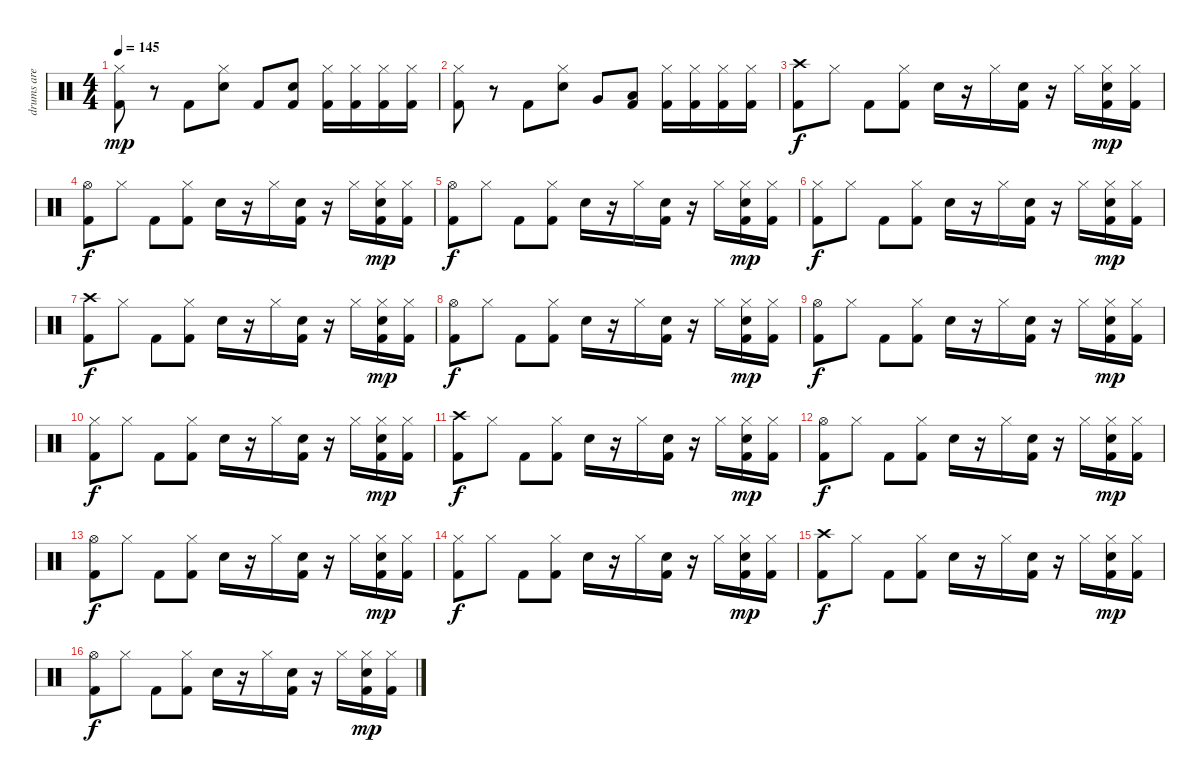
\track ("drums are cool   >.<" "drums are ") {instrument percussion}
\staff {score}
\articulation defaults
\ts (4 4)
\tempo 145
\clef neutral
\ks c
("Hi-Hat (closed)" "Kick (hit) 2").8{dy mp} r.8 "Kick (hit) 2".8 ("Hi-Hat (closed)" "Snare (hit) 2").8 "Kick (hit) 2".8 ("Snare (hit) 2" "Kick (hit) 2").8 ("Hi-Hat (closed)" "Kick (hit) 2").16 ("Hi-Hat (closed)" "Kick (hit) 2").16 ("Hi-Hat (closed)" "Kick (hit) 2").16 ("Hi-Hat (closed)" "Kick (hit) 2").16 |
("Hi-Hat (closed)" "Kick (hit) 2").8 r.8 "Kick (hit) 2".8 ("Hi-Hat (closed)" "Snare (hit) 2").8 "Very Low Tom (hit)".8 ("Low Floor Tom (hit)" "Kick (hit) 2").8 ("Hi-Hat (closed)" "Kick (hit) 2").16 ("Hi-Hat (closed)" "Kick (hit) 2").16 ("Hi-Hat (closed)" "Kick (hit) 2").16 ("Hi-Hat (closed)" "Kick (hit) 2").16 |
("Crash high (hit)" "Kick (hit) 2").8{dy f} "Hi-Hat (closed)".8 "Kick (hit) 2".8 ("Hi-Hat (closed)" "Kick (hit) 2").8 "Snare (hit) 2".16 r.16 "Hi-Hat (closed)".16 ("Snare (hit) 2" "Kick (hit) 2").16 r.16 "Hi-Hat (closed)".16 ("Hi-Hat (closed)" "Snare (hit) 2" "Kick (hit) 2").16{dy mp} ("Hi-Hat (closed)" "Kick (hit) 2").16 |
("Hi-Hat (open)" "Kick (hit) 2").8{dy f} "Hi-Hat (closed)".8 "Kick (hit) 2".8 ("Hi-Hat (closed)" "Kick (hit) 2").8 "Snare (hit) 2".16 r.16 "Hi-Hat (closed)".16 ("Snare (hit) 2" "Kick (hit) 2").16 r.16 "Hi-Hat (closed)".16 ("Hi-Hat (closed)" "Snare (hit) 2" "Kick (hit) 2").16{dy mp} ("Hi-Hat (closed)" "Kick (hit) 2").16 |
("Hi-Hat (open)" "Kick (hit) 2").8{dy f} "Hi-Hat (closed)".8 "Kick (hit) 2".8 ("Hi-Hat (closed)" "Kick (hit) 2").8 "Snare (hit) 2".16 r.16 "Hi-Hat (closed)".16 ("Snare (hit) 2" "Kick (hit) 2").16 r.16 "Hi-Hat (closed)".16 ("Hi-Hat (closed)" "Snare (hit) 2" "Kick (hit) 2").16{dy mp} ("Hi-Hat (closed)" "Kick (hit) 2").16 |
("Hi-Hat (closed)" "Kick (hit) 2").8{dy f} "Hi-Hat (closed)".8 "Kick (hit) 2".8 ("Hi-Hat (closed)" "Kick (hit) 2").8 "Snare (hit) 2".16 r.16 "Hi-Hat (closed)".16 ("Snare (hit) 2" "Kick (hit) 2").16 r.16 "Hi-Hat (closed)".16 ("Hi-Hat (closed)" "Snare (hit) 2" "Kick (hit) 2").16{dy mp} ("Hi-Hat (closed)" "Kick (hit) 2").16 |
("Crash high (hit)" "Kick (hit) 2").8{dy f} "Hi-Hat (closed)".8 "Kick (hit) 2".8 ("Hi-Hat (closed)" "Kick (hit) 2").8 "Snare (hit) 2".16 r.16 "Hi-Hat (closed)".16 ("Snare (hit) 2" "Kick (hit) 2").16 r.16 "Hi-Hat (closed)".16 ("Hi-Hat (closed)" "Snare (hit) 2" "Kick (hit) 2").16{dy mp} ("Hi-Hat (closed)" "Kick (hit) 2").16 |
("Hi-Hat (open)" "Kick (hit) 2").8{dy f} "Hi-Hat (closed)".8 "Kick (hit) 2".8 ("Hi-Hat (closed)" "Kick (hit) 2").8 "Snare (hit) 2".16 r.16 "Hi-Hat (closed)".16 ("Snare (hit) 2" "Kick (hit) 2").16 r.16 "Hi-Hat (closed)".16 ("Hi-Hat (closed)" "Snare (hit) 2" "Kick (hit) 2").16{dy mp} ("Hi-Hat (closed)" "Kick (hit) 2").16 |
("Hi-Hat (open)" "Kick (hit) 2").8{dy f} "Hi-Hat (closed)".8 "Kick (hit) 2".8 ("Hi-Hat (closed)" "Kick (hit) 2").8 "Snare (hit) 2".16 r.16 "Hi-Hat (closed)".16 ("Snare (hit) 2" "Kick (hit) 2").16 r.16 "Hi-Hat (closed)".16 ("Hi-Hat (closed)" "Snare (hit) 2" "Kick (hit) 2").16{dy mp} ("Hi-Hat (closed)" "Kick (hit) 2").16 |
("Hi-Hat (closed)" "Kick (hit) 2").8{dy f} "Hi-Hat (closed)".8 "Kick (hit) 2".8 ("Hi-Hat (closed)" "Kick (hit) 2").8 "Snare (hit) 2".16 r.16 "Hi-Hat (closed)".16 ("Snare (hit) 2" "Kick (hit) 2").16 r.16 "Hi-Hat (closed)".16 ("Hi-Hat (closed)" "Snare (hit) 2" "Kick (hit) 2").16{dy mp} ("Hi-Hat (closed)" "Kick (hit) 2").16 |
("Crash high (hit)" "Kick (hit) 2").8{dy f} "Hi-Hat (closed)".8 "Kick (hit) 2".8 ("Hi-Hat (closed)" "Kick (hit) 2").8 "Snare (hit) 2".16 r.16 "Hi-Hat (closed)".16 ("Snare (hit) 2" "Kick (hit) 2").16 r.16 "Hi-Hat (closed)".16 ("Hi-Hat (closed)" "Snare (hit) 2" "Kick (hit) 2").16{dy mp} ("Hi-Hat (closed)" "Kick (hit) 2").16 |
("Hi-Hat (open)" "Kick (hit) 2").8{dy f} "Hi-Hat (closed)".8 "Kick (hit) 2".8 ("Hi-Hat (closed)" "Kick (hit) 2").8 "Snare (hit) 2".16 r.16 "Hi-Hat (closed)".16 ("Snare (hit) 2" "Kick (hit) 2").16 r.16 "Hi-Hat (closed)".16 ("Hi-Hat (closed)" "Snare (hit) 2" "Kick (hit) 2").16{dy mp} ("Hi-Hat (closed)" "Kick (hit) 2").16 |
("Hi-Hat (open)" "Kick (hit) 2").8{dy f} "Hi-Hat (closed)".8 "Kick (hit) 2".8 ("Hi-Hat (closed)" "Kick (hit) 2").8 "Snare (hit) 2".16 r.16 "Hi-Hat (closed)".16 ("Snare (hit) 2" "Kick (hit) 2").16 r.16 "Hi-Hat (closed)".16 ("Hi-Hat (closed)" "Snare (hit) 2" "Kick (hit) 2").16{dy mp} ("Hi-Hat (closed)" "Kick (hit) 2").16 |
("Hi-Hat (closed)" "Kick (hit) 2").8{dy f} "Hi-Hat (closed)".8 "Kick (hit) 2".8 ("Hi-Hat (closed)" "Kick (hit) 2").8 "Snare (hit) 2".16 r.16 "Hi-Hat (closed)".16 ("Snare (hit) 2" "Kick (hit) 2").16 r.16 "Hi-Hat (closed)".16 ("Hi-Hat (closed)" "Snare (hit) 2" "Kick (hit) 2").16{dy mp} ("Hi-Hat (closed)" "Kick (hit) 2").16 |
("Crash high (hit)" "Kick (hit) 2").8{dy f} "Hi-Hat (closed)".8 "Kick (hit) 2".8 ("Hi-Hat (closed)" "Kick (hit) 2").8 "Snare (hit) 2".16 r.16 "Hi-Hat (closed)".16 ("Snare (hit) 2" "Kick (hit) 2").16 r.16 "Hi-Hat (closed)".16 ("Hi-Hat (closed)" "Snare (hit) 2" "Kick (hit) 2").16{dy mp} ("Hi-Hat (closed)" "Kick (hit) 2").16 |
("Hi-Hat (open)" "Kick (hit) 2").8{dy f} "Hi-Hat (closed)".8 "Kick (hit) 2".8 ("Hi-Hat (closed)" "Kick (hit) 2").8 "Snare (hit) 2".16 r.16 "Hi-Hat (closed)".16 ("Snare (hit) 2" "Kick (hit) 2").16 r.16 "Hi-Hat (closed)".16 ("Hi-Hat (closed)" "Snare (hit) 2" "Kick (hit) 2").16{dy mp} ("Hi-Hat (closed)" "Kick (hit) 2").16
